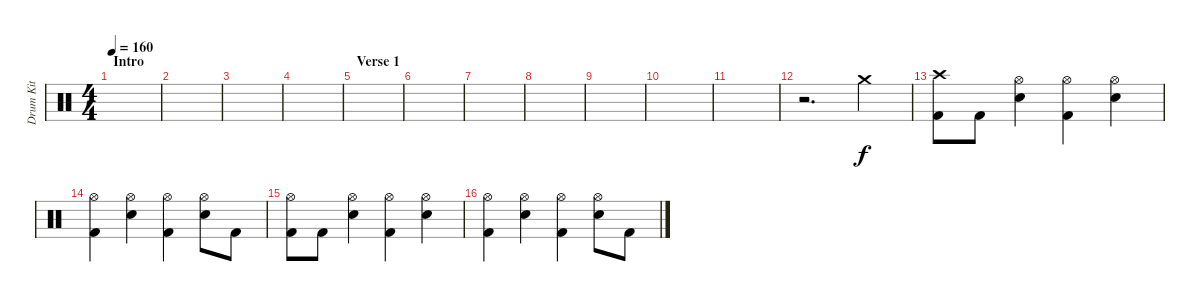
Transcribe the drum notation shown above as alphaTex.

\track ("Drum Kit" "Drum Kit") {instrument percussion}
\staff {score}
\articulation defaults
\ts (4 4)
\section ("" "Intro")
\tempo 160
\clef neutral
\ks c
|
|
|
|
\section ("" "Verse 1")
|
|
|
|
|
|
|
r.2{d} "Crash medium (hit)".4 |
("Crash high (hit)" "Kick (hit) 2").8 "Kick (hit) 2".8 ("Hi-Hat (open)" "Electric Snare (hit)").4 ("Hi-Hat (open)" "Kick (hit) 2").4 ("Hi-Hat (open)" "Electric Snare (hit)").4 |
("Hi-Hat (open)" "Kick (hit) 2").4 ("Hi-Hat (open)" "Electric Snare (hit)").4 ("Hi-Hat (open)" "Kick (hit) 2").4 ("Hi-Hat (open)" "Electric Snare (hit)").8 "Kick (hit) 2".8 |
("Hi-Hat (open)" "Kick (hit) 2").8 "Kick (hit) 2".8 ("Hi-Hat (open)" "Electric Snare (hit)").4 ("Hi-Hat (open)" "Kick (hit) 2").4 ("Hi-Hat (open)" "Electric Snare (hit)").4 |
("Hi-Hat (open)" "Kick (hit) 2").4 ("Hi-Hat (open)" "Electric Snare (hit)").4 ("Hi-Hat (open)" "Kick (hit) 2").4 ("Hi-Hat (open)" "Electric Snare (hit)").8 "Kick (hit) 2".8
